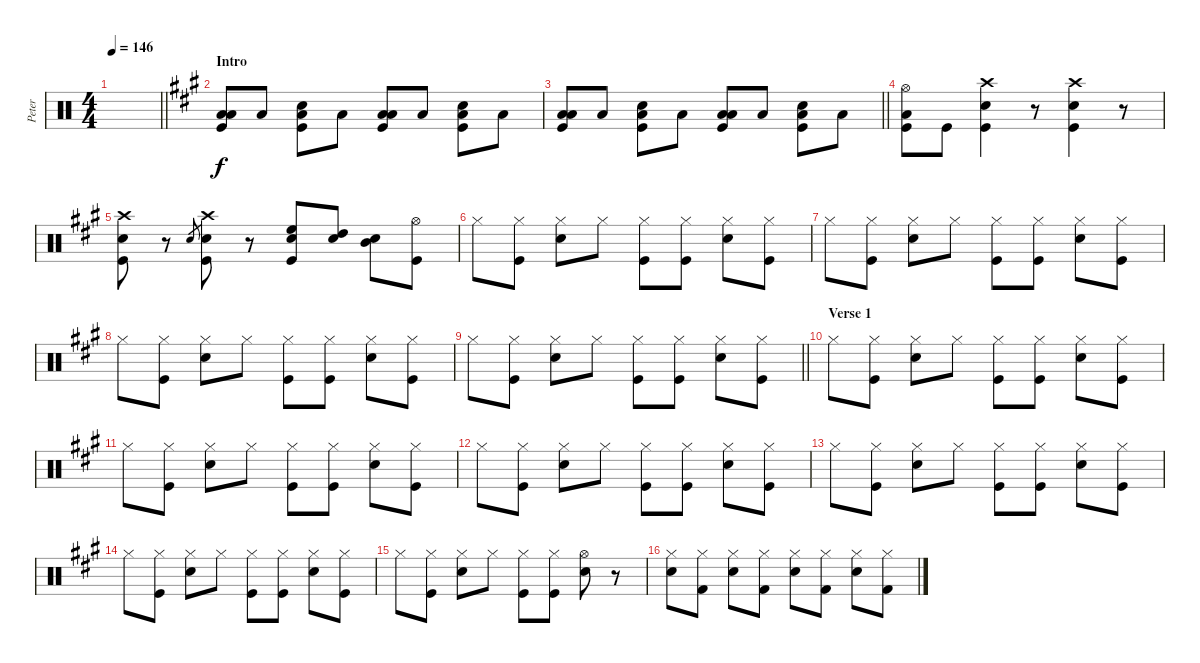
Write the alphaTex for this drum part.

\track ("Peter" "Peter") {instrument percussion}
\staff {score}
\articulation defaults
\ts (4 4)
\tempo 146
\clef neutral
\barLineRight lightlight
\ks c
|
\section ("" "Intro")
\ks a
("Low Tom (hit)" "Low Floor Tom (hit)" "Kick (hit)").8 "Low Floor Tom (hit)".8 ("Snare (hit) 2" "Low Floor Tom (hit)" "Kick (hit)").8 "Low Floor Tom (hit)".8 ("Low Tom (hit)" "Low Floor Tom (hit)" "Kick (hit)").8 "Low Floor Tom (hit)".8 ("Snare (hit) 2" "Low Floor Tom (hit)" "Kick (hit)").8 "Low Floor Tom (hit)".8 |
\barLineRight lightlight
("Low Tom (hit)" "Low Floor Tom (hit)" "Kick (hit)").8 "Low Floor Tom (hit)".8 ("Snare (hit) 2" "Low Floor Tom (hit)" "Kick (hit)").8 "Low Floor Tom (hit)".8 ("Low Tom (hit)" "Low Floor Tom (hit)" "Kick (hit)").8 "Low Floor Tom (hit)".8 ("Snare (hit) 2" "Low Floor Tom (hit)" "Kick (hit)").8 "Low Floor Tom (hit)".8 |
("Hi-Hat (open)" "Low Floor Tom (hit)" "Kick (hit)").8 "Kick (hit)".8 ("Crash high (hit)" "Snare (hit) 2" "Kick (hit)").4 r.8 ("Crash high (hit)" "Snare (hit) 2" "Kick (hit)").4 r.8 |
("Crash high (hit)" "Snare (hit) 2" "Kick (hit)").8 r.8 "Snare (hit) 2".8{gr} ("Crash high (hit)" "Snare (hit) 2" "Kick (hit)").8 r.8 ("Snare (hit) 2" "High Floor Tom (hit)" "Kick (hit)").8 ("Snare (hit) 2" "High Tom (hit)").8 ("Snare (hit) 2" "Mid Tom (hit)").8 ("Hi-Hat (open)" "Kick (hit)").8 |
"Hi-Hat (closed)".8 ("Hi-Hat (closed)" "Kick (hit)").8 ("Hi-Hat (closed)" "Snare (hit) 2").8 "Hi-Hat (closed)".8 ("Hi-Hat (closed)" "Kick (hit)").8 ("Hi-Hat (closed)" "Kick (hit)").8 ("Hi-Hat (closed)" "Snare (hit) 2").8 ("Hi-Hat (closed)" "Kick (hit)").8 |
"Hi-Hat (closed)".8 ("Hi-Hat (closed)" "Kick (hit)").8 ("Hi-Hat (closed)" "Snare (hit) 2").8 "Hi-Hat (closed)".8 ("Hi-Hat (closed)" "Kick (hit)").8 ("Hi-Hat (closed)" "Kick (hit)").8 ("Hi-Hat (closed)" "Snare (hit) 2").8 ("Hi-Hat (closed)" "Kick (hit)").8 |
"Hi-Hat (closed)".8 ("Hi-Hat (closed)" "Kick (hit)").8 ("Hi-Hat (closed)" "Snare (hit) 2").8 "Hi-Hat (closed)".8 ("Hi-Hat (closed)" "Kick (hit)").8 ("Hi-Hat (closed)" "Kick (hit)").8 ("Hi-Hat (closed)" "Snare (hit) 2").8 ("Hi-Hat (closed)" "Kick (hit)").8 |
\barLineRight lightlight "Hi-Hat (closed)".8
("Hi-Hat (closed)" "Kick (hit)").8 ("Hi-Hat (closed)" "Snare (hit) 2").8 "Hi-Hat (closed)".8 ("Hi-Hat (closed)" "Kick (hit)").8 ("Hi-Hat (closed)" "Kick (hit)").8 ("Hi-Hat (closed)" "Snare (hit) 2").8 ("Hi-Hat (closed)" "Kick (hit)").8 |
\section ("" "Verse 1")
"Hi-Hat (closed)".8 ("Hi-Hat (closed)" "Kick (hit)").8 ("Hi-Hat (closed)" "Snare (hit) 2").8 "Hi-Hat (closed)".8 ("Hi-Hat (closed)" "Kick (hit)").8 ("Hi-Hat (closed)" "Kick (hit)").8 ("Hi-Hat (closed)" "Snare (hit) 2").8 ("Hi-Hat (closed)" "Kick (hit)").8 |
"Hi-Hat (closed)".8 ("Hi-Hat (closed)" "Kick (hit)").8 ("Hi-Hat (closed)" "Snare (hit) 2").8 "Hi-Hat (closed)".8 ("Hi-Hat (closed)" "Kick (hit)").8 ("Hi-Hat (closed)" "Kick (hit)").8 ("Hi-Hat (closed)" "Snare (hit) 2").8 ("Hi-Hat (closed)" "Kick (hit)").8 |
"Hi-Hat (closed)".8 ("Hi-Hat (closed)" "Kick (hit)").8 ("Hi-Hat (closed)" "Snare (hit) 2").8 "Hi-Hat (closed)".8 ("Hi-Hat (closed)" "Kick (hit)").8 ("Hi-Hat (closed)" "Kick (hit)").8 ("Hi-Hat (closed)" "Snare (hit) 2").8 ("Hi-Hat (closed)" "Kick (hit)").8 |
"Hi-Hat (closed)".8 ("Hi-Hat (closed)" "Kick (hit)").8 ("Hi-Hat (closed)" "Snare (hit) 2").8 "Hi-Hat (closed)".8 ("Hi-Hat (closed)" "Kick (hit)").8 ("Hi-Hat (closed)" "Kick (hit)").8 ("Hi-Hat (closed)" "Snare (hit) 2").8 ("Hi-Hat (closed)" "Kick (hit)").8 |
"Hi-Hat (closed)".8 ("Hi-Hat (closed)" "Kick (hit)").8 ("Hi-Hat (closed)" "Snare (hit) 2").8 "Hi-Hat (closed)".8 ("Hi-Hat (closed)" "Kick (hit)").8 ("Hi-Hat (closed)" "Kick (hit)").8 ("Hi-Hat (closed)" "Snare (hit) 2").8 ("Hi-Hat (closed)" "Kick (hit)").8 |
"Hi-Hat (closed)".8 ("Hi-Hat (closed)" "Kick (hit)").8 ("Hi-Hat (closed)" "Snare (hit) 2").8 "Hi-Hat (closed)".8 ("Hi-Hat (closed)" "Kick (hit)").8 ("Hi-Hat (closed)" "Kick (hit)").8 ("Hi-Hat (open)" "Snare (hit) 2").8 r.8 |
("Hi-Hat (closed)" "Snare (hit) 2").8 ("Hi-Hat (closed)" "Kick (hit) 2").8 ("Hi-Hat (closed)" "Snare (hit) 2").8 ("Hi-Hat (closed)" "Kick (hit) 2").8 ("Hi-Hat (closed)" "Snare (hit) 2").8 ("Hi-Hat (closed)" "Kick (hit) 2").8 ("Hi-Hat (closed)" "Snare (hit) 2").8 ("Hi-Hat (closed)" "Kick (hit) 2").8
